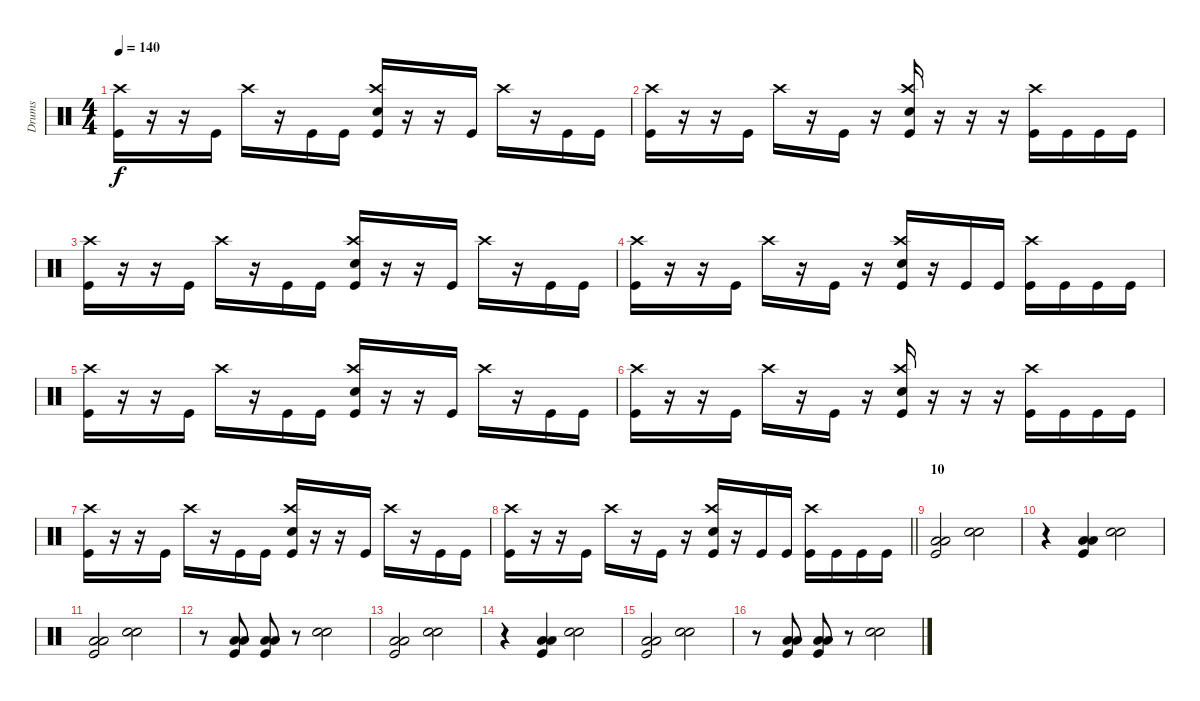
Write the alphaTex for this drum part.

\track ("Drums" "Drums") {instrument percussion}
\staff {score}
\articulation defaults
\ts (4 4)
\tempo 140
\clef neutral
\ks c
("Kick (hit)" "Crash high (hit)").16{dy f} r.16 r.16 "Kick (hit)".16 "Crash high (hit)".16 r.16 "Kick (hit)".16 "Kick (hit)".16 ("Kick (hit)" "Snare (hit) 2" "Crash high (hit)").16 r.16 r.16 "Kick (hit)".16 "Crash high (hit)".16 r.16 "Kick (hit)".16 "Kick (hit)".16 |
("Kick (hit)" "Crash high (hit)").16 r.16 r.16 "Kick (hit)".16 "Crash high (hit)".16 r.16 "Kick (hit)".16 r.16 ("Kick (hit)" "Snare (hit) 2" "Crash high (hit)").16 r.16 r.16 r.16 ("Kick (hit)" "Crash high (hit)").16 "Kick (hit)".16 "Kick (hit)".16 "Kick (hit)".16 |
("Kick (hit)" "Crash high (hit)").16 r.16 r.16 "Kick (hit)".16 "Crash high (hit)".16 r.16 "Kick (hit)".16 "Kick (hit)".16 ("Kick (hit)" "Snare (hit) 2" "Crash high (hit)").16 r.16 r.16 "Kick (hit)".16 "Crash high (hit)".16 r.16 "Kick (hit)".16 "Kick (hit)".16 |
("Kick (hit)" "Crash high (hit)").16 r.16 r.16 "Kick (hit)".16 "Crash high (hit)".16 r.16 "Kick (hit)".16 r.16 ("Kick (hit)" "Snare (hit) 2" "Crash high (hit)").16 r.16 "Kick (hit)".16 "Kick (hit)".16 ("Kick (hit)" "Crash high (hit)").16 "Kick (hit)".16 "Kick (hit)".16 "Kick (hit)".16 |
("Kick (hit)" "Crash high (hit)").16 r.16 r.16 "Kick (hit)".16 "Crash high (hit)".16 r.16 "Kick (hit)".16 "Kick (hit)".16 ("Kick (hit)" "Snare (hit) 2" "Crash high (hit)").16 r.16 r.16 "Kick (hit)".16 "Crash high (hit)".16 r.16 "Kick (hit)".16 "Kick (hit)".16 |
("Kick (hit)" "Crash high (hit)").16 r.16 r.16 "Kick (hit)".16 "Crash high (hit)".16 r.16 "Kick (hit)".16 r.16 ("Kick (hit)" "Snare (hit) 2" "Crash high (hit)").16 r.16 r.16 r.16 ("Kick (hit)" "Crash high (hit)").16 "Kick (hit)".16 "Kick (hit)".16 "Kick (hit)".16 |
("Kick (hit)" "Crash high (hit)").16 r.16 r.16 "Kick (hit)".16 "Crash high (hit)".16 r.16 "Kick (hit)".16 "Kick (hit)".16 ("Kick (hit)" "Snare (hit) 2" "Crash high (hit)").16 r.16 r.16 "Kick (hit)".16 "Crash high (hit)".16 r.16 "Kick (hit)".16 "Kick (hit)".16 |
\barLineRight lightlight
("Kick (hit)" "Crash high (hit)").16 r.16 r.16 "Kick (hit)".16 "Crash high (hit)".16 r.16 "Kick (hit)".16 r.16 ("Kick (hit)" "Snare (hit) 2" "Crash high (hit)").16 r.16 "Kick (hit)".16 "Kick (hit)".16 ("Kick (hit)" "Crash high (hit)").16 "Kick (hit)".16 "Kick (hit)".16 "Kick (hit)".16 |
\section ("" "10")
("Kick (hit)" "Low Tom (hit)" "Low Floor Tom (hit)").2 ("Snare (hit) 2" "Snare (hit) 2").2 |
r.4 ("Kick (hit)" "Low Floor Tom (hit)" "Low Tom (hit)").4 ("Snare (hit) 2" "Snare (hit) 2").2 |
("Kick (hit)" "Low Tom (hit)" "Low Floor Tom (hit)").2 ("Snare (hit) 2" "Snare (hit) 2").2 |
r.8 ("Kick (hit)" "Low Floor Tom (hit)" "Low Tom (hit)").8 ("Kick (hit)" "Low Floor Tom (hit)" "Low Tom (hit)").8 r.8 ("Snare (hit) 2" "Snare (hit) 2").2 |
("Kick (hit)" "Low Tom (hit)" "Low Floor Tom (hit)").2 ("Snare (hit) 2" "Snare (hit) 2").2 |
r.4 ("Kick (hit)" "Low Floor Tom (hit)" "Low Tom (hit)").4 ("Snare (hit) 2" "Snare (hit) 2").2 |
("Kick (hit)" "Low Tom (hit)" "Low Floor Tom (hit)").2 ("Snare (hit) 2" "Snare (hit) 2").2 |
r.8 ("Kick (hit)" "Low Floor Tom (hit)" "Low Tom (hit)").8 ("Kick (hit)" "Low Floor Tom (hit)" "Low Tom (hit)").8 r.8 ("Snare (hit) 2" "Snare (hit) 2").2
